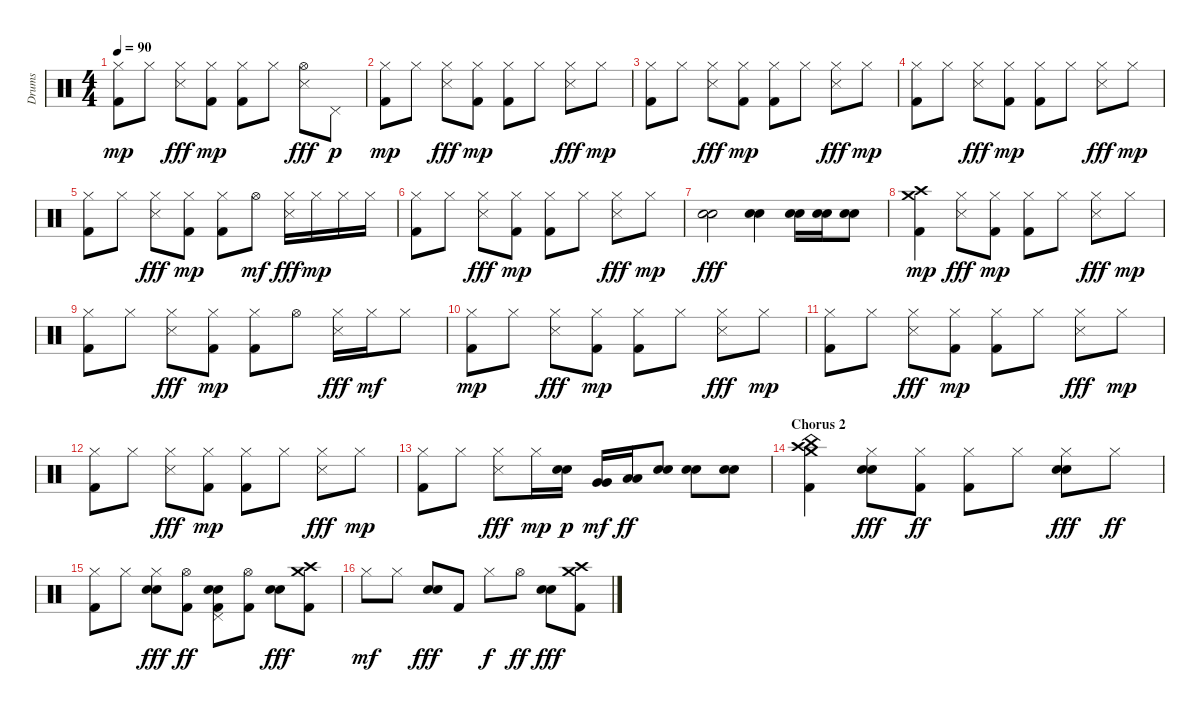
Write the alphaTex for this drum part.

\track ("Drums" "Drums") {instrument percussion}
\staff {score}
\articulation defaults
\ts (4 4)
\tempo 90
\clef neutral
\ks c
("Hi-Hat (closed)" "Kick (hit) 2").8{dy mp} "Hi-Hat (closed)".8 ("Hi-Hat (closed)" "Snare (side stick) 3").8{dy fff} ("Hi-Hat (closed)" "Kick (hit) 2").8{dy mp} ("Hi-Hat (closed)" "Kick (hit) 2").8 "Hi-Hat (closed)".8 ("Hi-Hat (open)" "Snare (side stick) 3").8{dy fff} "Pedal Hi-Hat (hit)".8{dy p} |
("Hi-Hat (closed)" "Kick (hit) 2").8{dy mp} "Hi-Hat (closed)".8 ("Hi-Hat (closed)" "Snare (side stick) 3").8{dy fff} ("Hi-Hat (closed)" "Kick (hit) 2").8{dy mp} ("Hi-Hat (closed)" "Kick (hit) 2").8 "Hi-Hat (closed)".8 ("Hi-Hat (closed)" "Snare (side stick) 3").8{dy fff} "Hi-Hat (closed)".8{dy mp} |
("Hi-Hat (closed)" "Kick (hit) 2").8 "Hi-Hat (closed)".8 ("Hi-Hat (closed)" "Snare (side stick) 3").8{dy fff} ("Hi-Hat (closed)" "Kick (hit) 2").8{dy mp} ("Hi-Hat (closed)" "Kick (hit) 2").8 "Hi-Hat (closed)".8 ("Hi-Hat (closed)" "Snare (side stick) 3").8{dy fff} "Hi-Hat (closed)".8{dy mp} |
("Hi-Hat (closed)" "Kick (hit) 2").8 "Hi-Hat (closed)".8 ("Hi-Hat (closed)" "Snare (side stick) 3").8{dy fff} ("Hi-Hat (closed)" "Kick (hit) 2").8{dy mp} ("Hi-Hat (closed)" "Kick (hit) 2").8 "Hi-Hat (closed)".8 ("Hi-Hat (closed)" "Snare (side stick) 3").8{dy fff} "Hi-Hat (closed)".8{dy mp} |
("Hi-Hat (closed)" "Kick (hit) 2").8 "Hi-Hat (closed)".8 ("Hi-Hat (closed)" "Snare (side stick) 3").8{dy fff} ("Hi-Hat (closed)" "Kick (hit) 2").8{dy mp} ("Hi-Hat (closed)" "Kick (hit) 2").8 "Hi-Hat (open)".8{dy mf} ("Hi-Hat (closed)" "Snare (side stick) 3").16{dy fff} "Hi-Hat (closed)".16{dy mp} "Hi-Hat (closed)".16 "Hi-Hat (closed)".16 |
("Hi-Hat (closed)" "Kick (hit) 2").8 "Hi-Hat (closed)".8 ("Hi-Hat (closed)" "Snare (side stick) 3").8{dy fff} ("Hi-Hat (closed)" "Kick (hit) 2").8{dy mp} ("Hi-Hat (closed)" "Kick (hit) 2").8 "Hi-Hat (closed)".8 ("Hi-Hat (closed)" "Snare (side stick) 3").8{dy fff} "Hi-Hat (closed)".8{dy mp} |
("Snare (hit) 2" "Electric Snare (hit)").2{dy fff} ("Snare (hit) 2" "Electric Snare (hit)").4 ("Snare (hit) 2" "Electric Snare (hit)").16 ("Snare (hit) 2" "Electric Snare (hit)").16 ("Snare (hit) 2" "Electric Snare (hit)").8 |
("Crash medium (hit)" "Crash high (hit)" "Kick (hit) 2").4{dy mp} ("Hi-Hat (closed)" "Snare (side stick) 3").8{dy fff} ("Hi-Hat (closed)" "Kick (hit) 2").8{dy mp} ("Hi-Hat (closed)" "Kick (hit) 2").8 "Hi-Hat (closed)".8 ("Hi-Hat (closed)" "Snare (side stick) 3").8{dy fff} "Hi-Hat (closed)".8{dy mp} |
("Hi-Hat (closed)" "Kick (hit) 2").8 "Hi-Hat (closed)".8 ("Hi-Hat (closed)" "Snare (side stick) 3").8{dy fff} ("Hi-Hat (closed)" "Kick (hit) 2").8{dy mp} ("Hi-Hat (closed)" "Kick (hit) 2").8 "Hi-Hat (open)".8 ("Hi-Hat (closed)" "Snare (side stick) 3").16{dy fff} "Hi-Hat (closed)".16{dy mf} "Hi-Hat (closed)".8 |
("Hi-Hat (closed)" "Kick (hit) 2").8{dy mp} "Hi-Hat (closed)".8 ("Hi-Hat (closed)" "Snare (side stick) 3").8{dy fff} ("Hi-Hat (closed)" "Kick (hit) 2").8{dy mp} ("Hi-Hat (closed)" "Kick (hit) 2").8 "Hi-Hat (closed)".8 ("Hi-Hat (closed)" "Snare (side stick) 3").8{dy fff} "Hi-Hat (closed)".8{dy mp} |
("Hi-Hat (closed)" "Kick (hit) 2").8 "Hi-Hat (closed)".8 ("Hi-Hat (closed)" "Snare (side stick) 3").8{dy fff} ("Hi-Hat (closed)" "Kick (hit) 2").8{dy mp} ("Hi-Hat (closed)" "Kick (hit) 2").8 "Hi-Hat (closed)".8 ("Hi-Hat (closed)" "Snare (side stick) 3").8{dy fff} "Hi-Hat (closed)".8{dy mp} |
("Hi-Hat (closed)" "Kick (hit) 2").8 "Hi-Hat (closed)".8 ("Hi-Hat (closed)" "Snare (side stick) 3").8{dy fff} ("Hi-Hat (closed)" "Kick (hit) 2").8{dy mp} ("Hi-Hat (closed)" "Kick (hit) 2").8 "Hi-Hat (closed)".8 ("Hi-Hat (closed)" "Snare (side stick) 3").8{dy fff} "Hi-Hat (closed)".8{dy mp} |
("Hi-Hat (closed)" "Kick (hit) 2").8 "Hi-Hat (closed)".8 ("Hi-Hat (closed)" "Snare (side stick) 3").8{dy fff} "Hi-Hat (closed)".16{dy mp} ("Snare (hit) 2" "Electric Snare (hit)").16{dy p} ("Very Low Tom (hit)" "Very Low Tom (hit)").16{dy mf} ("Low Tom (hit)" "Low Tom (hit)").16{dy ff} ("Snare (hit) 2" "Electric Snare (hit)").8 ("Snare (hit) 2" "Electric Snare (hit)").8 ("Snare (hit) 2" "Electric Snare (hit)").8 |
\section ("" "Chorus 2")
("Crash medium (hit)" "Crash high (hit)" "China (hit)" "Kick (hit) 2").4{volume 12} ("Hi-Hat (closed)" "Snare (hit) 2" "Electric Snare (hit)").8{dy fff} ("Hi-Hat (closed)" "Kick (hit) 2").8{dy ff} ("Hi-Hat (closed)" "Kick (hit) 2").8 "Hi-Hat (closed)".8 ("Hi-Hat (closed)" "Snare (hit) 2" "Electric Snare (hit)").8{dy fff} "Hi-Hat (closed)".8{dy ff} |
("Hi-Hat (closed)" "Kick (hit) 2").8 "Hi-Hat (closed)".8 ("Hi-Hat (closed)" "Snare (hit) 2" "Electric Snare (hit)").8{dy fff} ("Hi-Hat (open)" "Kick (hit) 2").8{dy ff} ("Pedal Hi-Hat (hit)" "Snare (hit) 2" "Electric Snare (hit)" "Kick (hit) 2").8 ("Hi-Hat (open)" "Kick (hit) 2").8 ("Snare (hit) 2" "Electric Snare (hit)").8{dy fff} ("Crash medium (hit)" "Crash high (hit)" "Kick (hit) 2").8 |
"Hi-Hat (closed)".8{dy mf} "Hi-Hat (closed)".8 ("Snare (hit) 2" "Electric Snare (hit)").8{dy fff} "Kick (hit) 2".8 "Hi-Hat (closed)".8{dy f} "Hi-Hat (open)".8{dy ff} ("Snare (hit) 2" "Electric Snare (hit)").8{dy fff} ("Crash medium (hit)" "Crash high (hit)" "Kick (hit) 2").8
